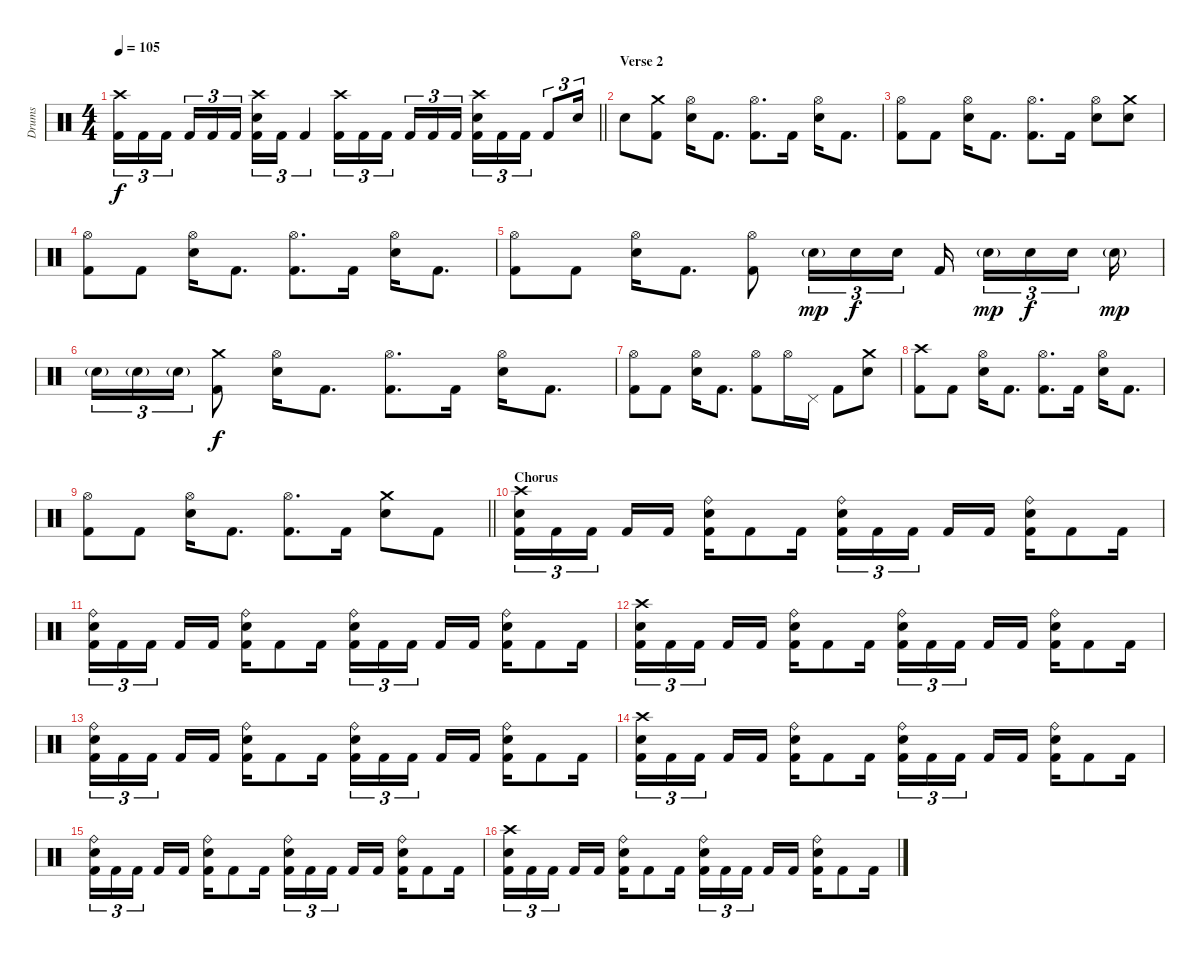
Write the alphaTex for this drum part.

\track ("Drums" "Drums") {instrument percussion}
\staff {score}
\articulation defaults
\ts (4 4)
\tempo 105
\clef neutral
\barLineRight lightlight
\ks c
("Crash high (hit)" "Kick (hit) 2").16{tu (3 2) dy f} "Kick (hit) 2".16{tu (3 2)} "Kick (hit) 2".16{tu (3 2) beam splitsecondary} "Kick (hit) 2".16{tu (3 2)} "Kick (hit) 2".16{tu (3 2)} "Kick (hit) 2".16{tu (3 2)} ("Crash high (hit)" "Electric Snare (hit)" "Kick (hit) 2").16{tu (3 2)} "Kick (hit) 2".16{tu (3 2)} "Kick (hit) 2".4{tu (3 2)} ("Crash high (hit)" "Kick (hit) 2").16{tu (3 2)} "Kick (hit) 2".16{tu (3 2)} "Kick (hit) 2".16{tu (3 2) beam splitsecondary} "Kick (hit) 2".16{tu (3 2)} "Kick (hit) 2".16{tu (3 2)} "Kick (hit) 2".16{tu (3 2)} ("Crash high (hit)" "Electric Snare (hit)" "Kick (hit) 2").16{tu (3 2)} "Kick (hit) 2".16{tu (3 2)} "Kick (hit) 2".16{tu (3 2)} "Kick (hit) 2".8{tu (3 2)} "Electric Snare (hit)".16{tu (3 2)} |
\section ("" "Verse 2")
"Electric Snare (hit)".8 ("Crash medium (hit)" "Kick (hit) 2").8 ("Hi-Hat (open)" "Electric Snare (hit)").16 "Kick (hit) 2".8{d} ("Hi-Hat (open)" "Kick (hit) 2").8{d} "Kick (hit) 2".16 ("Hi-Hat (open)" "Electric Snare (hit)").16 "Kick (hit) 2".8{d} |
("Hi-Hat (open)" "Kick (hit) 2").8 "Kick (hit) 2".8 ("Hi-Hat (open)" "Electric Snare (hit)").16 "Kick (hit) 2".8{d} ("Hi-Hat (open)" "Kick (hit) 2").8{d} "Kick (hit) 2".16 ("Hi-Hat (open)" "Electric Snare (hit)").8 ("Crash medium (hit)" "Electric Snare (hit)").8 |
("Hi-Hat (open)" "Kick (hit) 2").8 "Kick (hit) 2".8 ("Hi-Hat (open)" "Electric Snare (hit)").16 "Kick (hit) 2".8{d} ("Hi-Hat (open)" "Kick (hit) 2").8{d} "Kick (hit) 2".16 ("Hi-Hat (open)" "Electric Snare (hit)").16 "Kick (hit) 2".8{d} |
("Hi-Hat (open)" "Kick (hit) 2").8 "Kick (hit) 2".8 ("Hi-Hat (open)" "Electric Snare (hit)").16 "Kick (hit) 2".8{d} ("Hi-Hat (open)" "Kick (hit) 2").8 "Electric Snare (hit)"{g}.16{tu (3 2) dy mp} "Electric Snare (hit)".16{tu (3 2) dy f} "Electric Snare (hit)".16{tu (3 2)} "Kick (hit) 2".16{beam splitsecondary} "Electric Snare (hit)"{g}.16{tu (3 2) dy mp} "Electric Snare (hit)".16{tu (3 2) dy f} "Electric Snare (hit)".16{tu (3 2) beam splitsecondary} "Electric Snare (hit)"{g}.16{dy mp} |
"Electric Snare (hit)"{g}.16{tu (3 2)} "Electric Snare (hit)"{g}.16{tu (3 2)} "Electric Snare (hit)"{g}.16{tu (3 2)} ("Crash medium (hit)" "Kick (hit) 2").8{dy f} ("Hi-Hat (open)" "Electric Snare (hit)").16 "Kick (hit) 2".8{d} ("Hi-Hat (open)" "Kick (hit) 2").8{d} "Kick (hit) 2".16 ("Hi-Hat (open)" "Electric Snare (hit)").16 "Kick (hit) 2".8{d} |
("Hi-Hat (open)" "Kick (hit) 2").8 "Kick (hit) 2".8 ("Hi-Hat (open)" "Electric Snare (hit)").16 "Kick (hit) 2".8{d} ("Hi-Hat (open)" "Kick (hit) 2").8 "Hi-Hat (open)".16 "Pedal Hi-Hat (hit)".16 "Kick (hit) 2".8 ("Crash medium (hit)" "Electric Snare (hit)").8 |
("Crash high (hit)" "Kick (hit) 2").8 "Kick (hit) 2".8 ("Hi-Hat (open)" "Electric Snare (hit)").16 "Kick (hit) 2".8{d} ("Hi-Hat (open)" "Kick (hit) 2").8{d} "Kick (hit) 2".16 ("Hi-Hat (open)" "Electric Snare (hit)").16 "Kick (hit) 2".8{d} |
\barLineRight lightlight
("Hi-Hat (open)" "Kick (hit) 2").8 "Kick (hit) 2".8 ("Hi-Hat (open)" "Electric Snare (hit)").16 "Kick (hit) 2".8{d} ("Hi-Hat (open)" "Kick (hit) 2").8{d} "Kick (hit) 2".16 ("Crash medium (hit)" "Electric Snare (hit)").8 "Kick (hit) 2".8 |
\section ("" "Chorus")
("Crash high (hit)" "Electric Snare (hit)" "Kick (hit) 2").16{tu (3 2)} "Kick (hit) 2".16{tu (3 2)} "Kick (hit) 2".16{tu (3 2) beam splitsecondary} "Kick (hit) 2".16 "Kick (hit) 2".16 ("Ride (bell)" "Electric Snare (hit)" "Kick (hit) 2").16 "Kick (hit) 2".8 "Kick (hit) 2".16 ("Ride (bell)" "Electric Snare (hit)" "Kick (hit) 2").16{tu (3 2)} "Kick (hit) 2".16{tu (3 2)} "Kick (hit) 2".16{tu (3 2) beam splitsecondary} "Kick (hit) 2".16 "Kick (hit) 2".16 ("Ride (bell)" "Electric Snare (hit)" "Kick (hit) 2").16 "Kick (hit) 2".8 "Kick (hit) 2".16 |
("Ride (bell)" "Electric Snare (hit)" "Kick (hit) 2").16{tu (3 2)} "Kick (hit) 2".16{tu (3 2)} "Kick (hit) 2".16{tu (3 2) beam splitsecondary} "Kick (hit) 2".16 "Kick (hit) 2".16 ("Ride (bell)" "Electric Snare (hit)" "Kick (hit) 2").16 "Kick (hit) 2".8 "Kick (hit) 2".16 ("Ride (bell)" "Electric Snare (hit)" "Kick (hit) 2").16{tu (3 2)} "Kick (hit) 2".16{tu (3 2)} "Kick (hit) 2".16{tu (3 2) beam splitsecondary} "Kick (hit) 2".16 "Kick (hit) 2".16 ("Ride (bell)" "Electric Snare (hit)" "Kick (hit) 2").16 "Kick (hit) 2".8 "Kick (hit) 2".16 |
("Crash high (hit)" "Electric Snare (hit)" "Kick (hit) 2").16{tu (3 2)} "Kick (hit) 2".16{tu (3 2)} "Kick (hit) 2".16{tu (3 2) beam splitsecondary} "Kick (hit) 2".16 "Kick (hit) 2".16 ("Ride (bell)" "Electric Snare (hit)" "Kick (hit) 2").16 "Kick (hit) 2".8 "Kick (hit) 2".16 ("Ride (bell)" "Electric Snare (hit)" "Kick (hit) 2").16{tu (3 2)} "Kick (hit) 2".16{tu (3 2)} "Kick (hit) 2".16{tu (3 2) beam splitsecondary} "Kick (hit) 2".16 "Kick (hit) 2".16 ("Ride (bell)" "Electric Snare (hit)" "Kick (hit) 2").16 "Kick (hit) 2".8 "Kick (hit) 2".16 |
("Ride (bell)" "Electric Snare (hit)" "Kick (hit) 2").16{tu (3 2)} "Kick (hit) 2".16{tu (3 2)} "Kick (hit) 2".16{tu (3 2) beam splitsecondary} "Kick (hit) 2".16 "Kick (hit) 2".16 ("Ride (bell)" "Electric Snare (hit)" "Kick (hit) 2").16 "Kick (hit) 2".8 "Kick (hit) 2".16 ("Ride (bell)" "Electric Snare (hit)" "Kick (hit) 2").16{tu (3 2)} "Kick (hit) 2".16{tu (3 2)} "Kick (hit) 2".16{tu (3 2) beam splitsecondary} "Kick (hit) 2".16 "Kick (hit) 2".16 ("Ride (bell)" "Electric Snare (hit)" "Kick (hit) 2").16 "Kick (hit) 2".8 "Kick (hit) 2".16 |
("Crash high (hit)" "Electric Snare (hit)" "Kick (hit) 2").16{tu (3 2)} "Kick (hit) 2".16{tu (3 2)} "Kick (hit) 2".16{tu (3 2) beam splitsecondary} "Kick (hit) 2".16 "Kick (hit) 2".16 ("Ride (bell)" "Electric Snare (hit)" "Kick (hit) 2").16 "Kick (hit) 2".8 "Kick (hit) 2".16 ("Ride (bell)" "Electric Snare (hit)" "Kick (hit) 2").16{tu (3 2)} "Kick (hit) 2".16{tu (3 2)} "Kick (hit) 2".16{tu (3 2) beam splitsecondary} "Kick (hit) 2".16 "Kick (hit) 2".16 ("Ride (bell)" "Electric Snare (hit)" "Kick (hit) 2").16 "Kick (hit) 2".8 "Kick (hit) 2".16 |
("Ride (bell)" "Electric Snare (hit)" "Kick (hit) 2").16{tu (3 2)} "Kick (hit) 2".16{tu (3 2)} "Kick (hit) 2".16{tu (3 2) beam splitsecondary} "Kick (hit) 2".16 "Kick (hit) 2".16 ("Ride (bell)" "Electric Snare (hit)" "Kick (hit) 2").16 "Kick (hit) 2".8 "Kick (hit) 2".16 ("Ride (bell)" "Electric Snare (hit)" "Kick (hit) 2").16{tu (3 2)} "Kick (hit) 2".16{tu (3 2)} "Kick (hit) 2".16{tu (3 2) beam splitsecondary} "Kick (hit) 2".16 "Kick (hit) 2".16 ("Ride (bell)" "Electric Snare (hit)" "Kick (hit) 2").16 "Kick (hit) 2".8 "Kick (hit) 2".16 |
("Crash high (hit)" "Electric Snare (hit)" "Kick (hit) 2").16{tu (3 2)} "Kick (hit) 2".16{tu (3 2)} "Kick (hit) 2".16{tu (3 2) beam splitsecondary} "Kick (hit) 2".16 "Kick (hit) 2".16 ("Ride (bell)" "Electric Snare (hit)" "Kick (hit) 2").16 "Kick (hit) 2".8 "Kick (hit) 2".16 ("Ride (bell)" "Electric Snare (hit)" "Kick (hit) 2").16{tu (3 2)} "Kick (hit) 2".16{tu (3 2)} "Kick (hit) 2".16{tu (3 2) beam splitsecondary} "Kick (hit) 2".16 "Kick (hit) 2".16 ("Ride (bell)" "Electric Snare (hit)" "Kick (hit) 2").16 "Kick (hit) 2".8 "Kick (hit) 2".16
